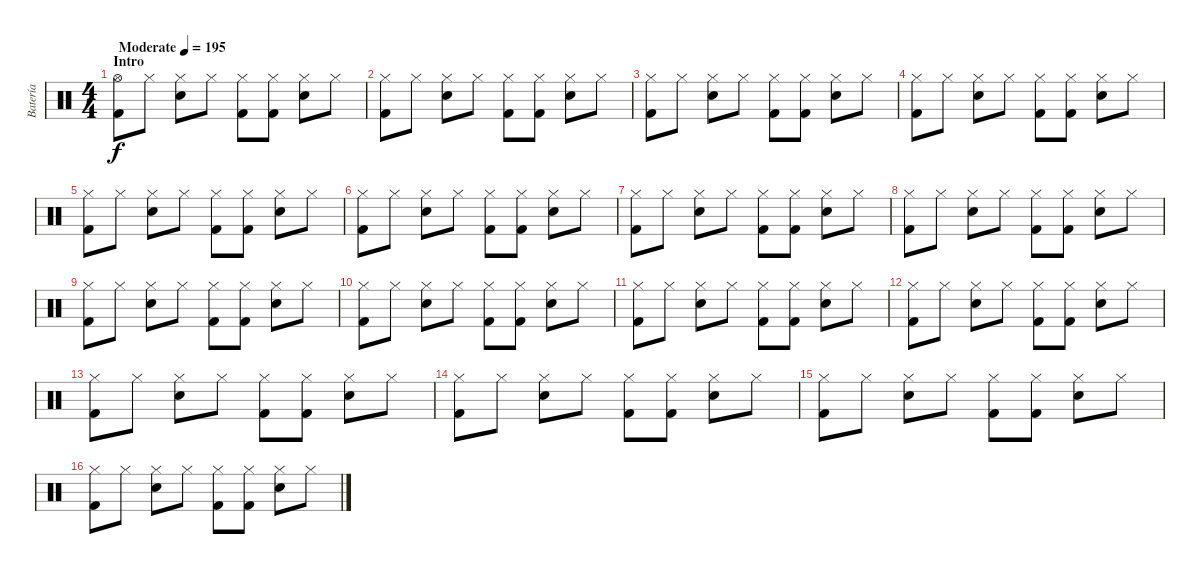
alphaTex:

\track ("Batería" "Batería") {instrument percussion}
\staff {score}
\articulation defaults
\ts (4 4)
\section ("" "Intro")
\tempo (195 "Moderate")
\clef neutral
\ks c
("Hi-Hat (open)" "Kick (hit) 2").8{dy f} "Hi-Hat (closed)".8 ("Hi-Hat (closed)" "Snare (hit) 2").8 "Hi-Hat (closed)".8 ("Hi-Hat (closed)" "Kick (hit) 2").8 ("Hi-Hat (closed)" "Kick (hit) 2").8 ("Hi-Hat (closed)" "Snare (hit) 2").8 "Hi-Hat (closed)".8 |
("Hi-Hat (closed)" "Kick (hit) 2").8 "Hi-Hat (closed)".8 ("Hi-Hat (closed)" "Snare (hit) 2").8 "Hi-Hat (closed)".8 ("Hi-Hat (closed)" "Kick (hit) 2").8 ("Hi-Hat (closed)" "Kick (hit) 2").8 ("Hi-Hat (closed)" "Snare (hit) 2").8 "Hi-Hat (closed)".8 |
("Hi-Hat (closed)" "Kick (hit) 2").8 "Hi-Hat (closed)".8 ("Hi-Hat (closed)" "Snare (hit) 2").8 "Hi-Hat (closed)".8 ("Hi-Hat (closed)" "Kick (hit) 2").8 ("Hi-Hat (closed)" "Kick (hit) 2").8 ("Hi-Hat (closed)" "Snare (hit) 2").8 "Hi-Hat (closed)".8 |
("Hi-Hat (closed)" "Kick (hit) 2").8 "Hi-Hat (closed)".8 ("Hi-Hat (closed)" "Snare (hit) 2").8 "Hi-Hat (closed)".8 ("Hi-Hat (closed)" "Kick (hit) 2").8 ("Hi-Hat (closed)" "Kick (hit) 2").8 ("Hi-Hat (closed)" "Snare (hit) 2").8 "Hi-Hat (closed)".8 |
("Hi-Hat (closed)" "Kick (hit) 2").8 "Hi-Hat (closed)".8 ("Hi-Hat (closed)" "Snare (hit) 2").8 "Hi-Hat (closed)".8 ("Hi-Hat (closed)" "Kick (hit) 2").8 ("Hi-Hat (closed)" "Kick (hit) 2").8 ("Hi-Hat (closed)" "Snare (hit) 2").8 "Hi-Hat (closed)".8 |
("Hi-Hat (closed)" "Kick (hit) 2").8 "Hi-Hat (closed)".8 ("Hi-Hat (closed)" "Snare (hit) 2").8 "Hi-Hat (closed)".8 ("Hi-Hat (closed)" "Kick (hit) 2").8 ("Hi-Hat (closed)" "Kick (hit) 2").8 ("Hi-Hat (closed)" "Snare (hit) 2").8 "Hi-Hat (closed)".8 |
("Hi-Hat (closed)" "Kick (hit) 2").8 "Hi-Hat (closed)".8 ("Hi-Hat (closed)" "Snare (hit) 2").8 "Hi-Hat (closed)".8 ("Hi-Hat (closed)" "Kick (hit) 2").8 ("Hi-Hat (closed)" "Kick (hit) 2").8 ("Hi-Hat (closed)" "Snare (hit) 2").8 "Hi-Hat (closed)".8 |
("Hi-Hat (closed)" "Kick (hit) 2").8 "Hi-Hat (closed)".8 ("Hi-Hat (closed)" "Snare (hit) 2").8 "Hi-Hat (closed)".8 ("Hi-Hat (closed)" "Kick (hit) 2").8 ("Hi-Hat (closed)" "Kick (hit) 2").8 ("Hi-Hat (closed)" "Snare (hit) 2").8 "Hi-Hat (closed)".8 |
("Hi-Hat (closed)" "Kick (hit) 2").8 "Hi-Hat (closed)".8 ("Hi-Hat (closed)" "Snare (hit) 2").8 "Hi-Hat (closed)".8 ("Hi-Hat (closed)" "Kick (hit) 2").8 ("Hi-Hat (closed)" "Kick (hit) 2").8 ("Hi-Hat (closed)" "Snare (hit) 2").8 "Hi-Hat (closed)".8 |
("Hi-Hat (closed)" "Kick (hit) 2").8 "Hi-Hat (closed)".8 ("Hi-Hat (closed)" "Snare (hit) 2").8 "Hi-Hat (closed)".8 ("Hi-Hat (closed)" "Kick (hit) 2").8 ("Hi-Hat (closed)" "Kick (hit) 2").8 ("Hi-Hat (closed)" "Snare (hit) 2").8 "Hi-Hat (closed)".8 |
("Hi-Hat (closed)" "Kick (hit) 2").8 "Hi-Hat (closed)".8 ("Hi-Hat (closed)" "Snare (hit) 2").8 "Hi-Hat (closed)".8 ("Hi-Hat (closed)" "Kick (hit) 2").8 ("Hi-Hat (closed)" "Kick (hit) 2").8 ("Hi-Hat (closed)" "Snare (hit) 2").8 "Hi-Hat (closed)".8 |
("Hi-Hat (closed)" "Kick (hit) 2").8 "Hi-Hat (closed)".8 ("Hi-Hat (closed)" "Snare (hit) 2").8 "Hi-Hat (closed)".8 ("Hi-Hat (closed)" "Kick (hit) 2").8 ("Hi-Hat (closed)" "Kick (hit) 2").8 ("Hi-Hat (closed)" "Snare (hit) 2").8 "Hi-Hat (closed)".8 |
("Hi-Hat (closed)" "Kick (hit) 2").8 "Hi-Hat (closed)".8 ("Hi-Hat (closed)" "Snare (hit) 2").8 "Hi-Hat (closed)".8 ("Hi-Hat (closed)" "Kick (hit) 2").8 ("Hi-Hat (closed)" "Kick (hit) 2").8 ("Hi-Hat (closed)" "Snare (hit) 2").8 "Hi-Hat (closed)".8 |
("Hi-Hat (closed)" "Kick (hit) 2").8 "Hi-Hat (closed)".8 ("Hi-Hat (closed)" "Snare (hit) 2").8 "Hi-Hat (closed)".8 ("Hi-Hat (closed)" "Kick (hit) 2").8 ("Hi-Hat (closed)" "Kick (hit) 2").8 ("Hi-Hat (closed)" "Snare (hit) 2").8 "Hi-Hat (closed)".8 |
("Hi-Hat (closed)" "Kick (hit) 2").8 "Hi-Hat (closed)".8 ("Hi-Hat (closed)" "Snare (hit) 2").8 "Hi-Hat (closed)".8 ("Hi-Hat (closed)" "Kick (hit) 2").8 ("Hi-Hat (closed)" "Kick (hit) 2").8 ("Hi-Hat (closed)" "Snare (hit) 2").8 "Hi-Hat (closed)".8 |
("Hi-Hat (closed)" "Kick (hit) 2").8 "Hi-Hat (closed)".8 ("Hi-Hat (closed)" "Snare (hit) 2").8 "Hi-Hat (closed)".8 ("Hi-Hat (closed)" "Kick (hit) 2").8 ("Hi-Hat (closed)" "Kick (hit) 2").8 ("Hi-Hat (closed)" "Snare (hit) 2").8 "Hi-Hat (closed)".8
